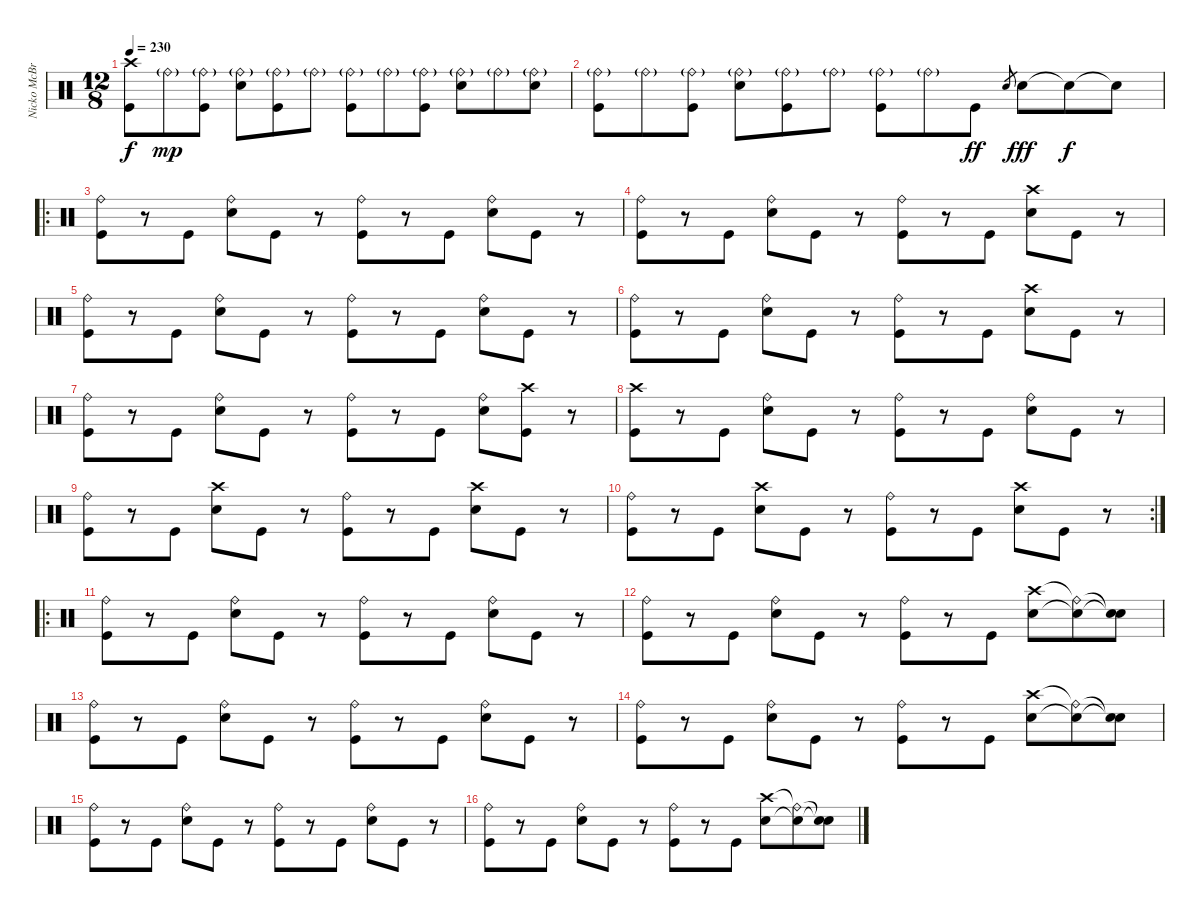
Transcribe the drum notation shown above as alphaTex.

\track ("Nicko McBrain" "Nicko McBr") {instrument percussion}
\staff {score}
\articulation defaults
\ts (12 8)
\tempo 230
\clef neutral
\ks c
("Crash high (hit)" "Kick (hit)").8{dy f} "Ride (bell)"{g}.8{dy mp} ("Ride (bell)"{g} "Kick (hit)").8 ("Ride (bell)"{g} "Electric Snare (hit)").8 ("Ride (bell)"{g} "Kick (hit)").8 "Ride (bell)"{g}.8 ("Ride (bell)"{g} "Kick (hit)").8 "Ride (bell)"{g}.8 ("Ride (bell)"{g} "Kick (hit)").8 ("Ride (bell)"{g} "Electric Snare (hit)").8 "Ride (bell)"{g}.8 ("Ride (bell)"{g} "Electric Snare (hit)").8 |
("Ride (bell)"{g} "Kick (hit)").8 "Ride (bell)"{g}.8 ("Ride (bell)"{g} "Kick (hit)").8 ("Ride (bell)"{g} "Electric Snare (hit)").8 ("Ride (bell)"{g} "Kick (hit)").8 "Ride (bell)"{g}.8 ("Ride (bell)"{g} "Kick (hit)").8 "Ride (bell)"{g}.8 "Kick (hit)".8{dy ff} "Electric Snare (hit)".8{gr} "Electric Snare (hit)".8{dy fff} "Snare (hit)"{t}.8{dy f} "Snare (hit)"{t}.8 |
\ro
("Ride (bell)" "Kick (hit)").8 r.8 "Kick (hit)".8 ("Ride (bell)" "Electric Snare (hit)").8 "Kick (hit)".8 r.8 ("Ride (bell)" "Kick (hit)").8 r.8 "Kick (hit)".8 ("Ride (bell)" "Electric Snare (hit)").8 "Kick (hit)".8 r.8 |
("Ride (bell)" "Kick (hit)").8 r.8 "Kick (hit)".8 ("Ride (bell)" "Electric Snare (hit)").8 "Kick (hit)".8 r.8 ("Ride (bell)" "Kick (hit)").8 r.8 "Kick (hit)".8 ("Crash high (hit)" "Electric Snare (hit)").8 "Kick (hit)".8 r.8 |
("Ride (bell)" "Kick (hit)").8 r.8 "Kick (hit)".8 ("Ride (bell)" "Electric Snare (hit)").8 "Kick (hit)".8 r.8 ("Ride (bell)" "Kick (hit)").8 r.8 "Kick (hit)".8 ("Ride (bell)" "Electric Snare (hit)").8 "Kick (hit)".8 r.8 |
("Ride (bell)" "Kick (hit)").8 r.8 "Kick (hit)".8 ("Ride (bell)" "Electric Snare (hit)").8 "Kick (hit)".8 r.8 ("Ride (bell)" "Kick (hit)").8 r.8 "Kick (hit)".8 ("Crash high (hit)" "Electric Snare (hit)").8 "Kick (hit)".8 r.8 |
("Ride (bell)" "Kick (hit)").8 r.8 "Kick (hit)".8 ("Ride (bell)" "Electric Snare (hit)").8 "Kick (hit)".8 r.8 ("Ride (bell)" "Kick (hit)").8 r.8 "Kick (hit)".8 ("Ride (bell)" "Electric Snare (hit)").8 ("Crash high (hit)" "Kick (hit)").8 r.8 |
("Crash high (hit)" "Kick (hit)").8 r.8 "Kick (hit)".8 ("Ride (bell)" "Electric Snare (hit)").8 "Kick (hit)".8 r.8 ("Ride (bell)" "Kick (hit)").8 r.8 "Kick (hit)".8 ("Ride (bell)" "Electric Snare (hit)").8 "Kick (hit)".8 r.8 |
("Ride (bell)" "Kick (hit)").8 r.8 "Kick (hit)".8 ("Crash high (hit)" "Electric Snare (hit)").8 "Kick (hit)".8 r.8 ("Ride (bell)" "Kick (hit)").8 r.8 "Kick (hit)".8 ("Crash high (hit)" "Electric Snare (hit)").8 "Kick (hit)".8 r.8 |
\rc 2
("Ride (bell)" "Kick (hit)").8 r.8 "Kick (hit)".8 ("Crash high (hit)" "Electric Snare (hit)").8 "Kick (hit)".8 r.8 ("Ride (bell)" "Kick (hit)").8 r.8 "Kick (hit)".8 ("Crash high (hit)" "Electric Snare (hit)").8 "Kick (hit)".8 r.8 |
\ro
("Ride (bell)" "Kick (hit)").8 r.8 "Kick (hit)".8 ("Ride (bell)" "Electric Snare (hit)").8 "Kick (hit)".8 r.8 ("Ride (bell)" "Kick (hit)").8 r.8 "Kick (hit)".8 ("Ride (bell)" "Electric Snare (hit)").8 "Kick (hit)".8 r.8 |
("Ride (bell)" "Kick (hit)").8 r.8 "Kick (hit)".8 ("Ride (bell)" "Electric Snare (hit)").8 "Kick (hit)".8 r.8 ("Ride (bell)" "Kick (hit)").8 r.8 "Kick (hit)".8 ("Crash high (hit)" "Electric Snare (hit)").8 ("Ride (bell)"{t} "Snare (hit)"{t}).8 ("Snare (hit)"{t} "Snare (hit)"{t}).8 |
("Ride (bell)" "Kick (hit)").8 r.8 "Kick (hit)".8 ("Ride (bell)" "Electric Snare (hit)").8 "Kick (hit)".8 r.8 ("Ride (bell)" "Kick (hit)").8 r.8 "Kick (hit)".8 ("Ride (bell)" "Electric Snare (hit)").8 "Kick (hit)".8 r.8 |
("Ride (bell)" "Kick (hit)").8 r.8 "Kick (hit)".8 ("Ride (bell)" "Electric Snare (hit)").8 "Kick (hit)".8 r.8 ("Ride (bell)" "Kick (hit)").8 r.8 "Kick (hit)".8 ("Crash high (hit)" "Electric Snare (hit)").8 ("Ride (bell)"{t} "Snare (hit)"{t}).8 ("Snare (hit)"{t} "Snare (hit)"{t}).8 |
("Ride (bell)" "Kick (hit)").8 r.8 "Kick (hit)".8 ("Ride (bell)" "Electric Snare (hit)").8 "Kick (hit)".8 r.8 ("Ride (bell)" "Kick (hit)").8 r.8 "Kick (hit)".8 ("Ride (bell)" "Electric Snare (hit)").8 "Kick (hit)".8 r.8 |
("Ride (bell)" "Kick (hit)").8 r.8 "Kick (hit)".8 ("Ride (bell)" "Electric Snare (hit)").8 "Kick (hit)".8 r.8 ("Ride (bell)" "Kick (hit)").8 r.8 "Kick (hit)".8 ("Crash high (hit)" "Electric Snare (hit)").8 ("Ride (bell)"{t} "Snare (hit)"{t}).8 ("Snare (hit)"{t} "Snare (hit)"{t}).8
